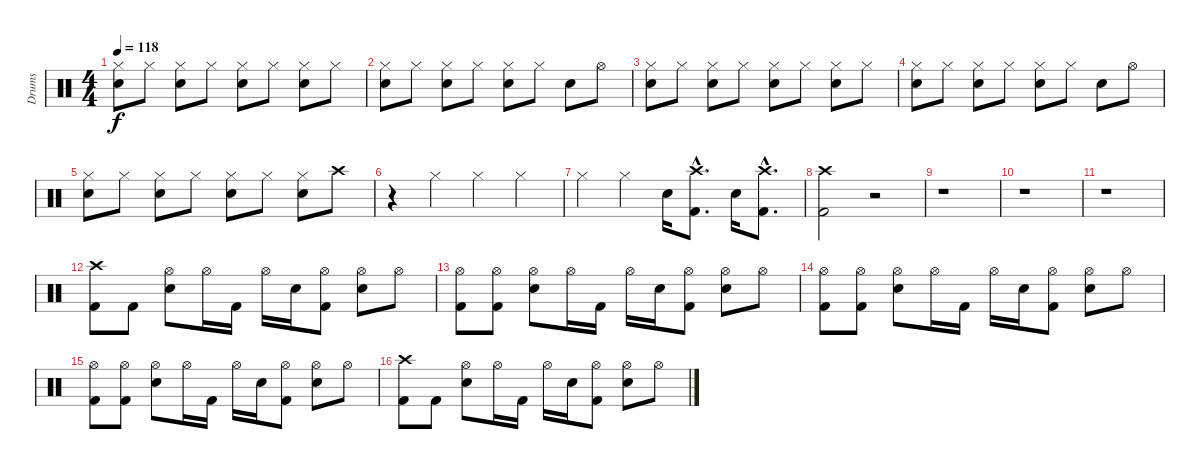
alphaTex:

\track ("Drums" "Drums") {instrument percussion}
\staff {score}
\articulation defaults
\ts (4 4)
\tempo 118
\clef neutral
\ks c
("Hi-Hat (closed)" "Electric Snare (hit)").8{dy f} "Hi-Hat (closed)".8 ("Hi-Hat (closed)" "Electric Snare (hit)").8 "Hi-Hat (closed)".8 ("Hi-Hat (closed)" "Electric Snare (hit)").8 "Hi-Hat (closed)".8 ("Hi-Hat (closed)" "Electric Snare (hit)").8 "Hi-Hat (closed)".8 |
("Hi-Hat (closed)" "Electric Snare (hit)").8 "Hi-Hat (closed)".8 ("Hi-Hat (closed)" "Electric Snare (hit)").8 "Hi-Hat (closed)".8 ("Hi-Hat (closed)" "Electric Snare (hit)").8 "Hi-Hat (closed)".8 "Electric Snare (hit)".8 "Hi-Hat (open)".8 |
("Hi-Hat (closed)" "Electric Snare (hit)").8 "Hi-Hat (closed)".8 ("Hi-Hat (closed)" "Electric Snare (hit)").8 "Hi-Hat (closed)".8 ("Hi-Hat (closed)" "Electric Snare (hit)").8 "Hi-Hat (closed)".8 ("Hi-Hat (closed)" "Electric Snare (hit)").8 "Hi-Hat (closed)".8 |
("Hi-Hat (closed)" "Electric Snare (hit)").8 "Hi-Hat (closed)".8 ("Hi-Hat (closed)" "Electric Snare (hit)").8 "Hi-Hat (closed)".8 ("Hi-Hat (closed)" "Electric Snare (hit)").8 "Hi-Hat (closed)".8 "Electric Snare (hit)".8 "Hi-Hat (open)".8 |
("Hi-Hat (closed)" "Electric Snare (hit)").8 "Hi-Hat (closed)".8 ("Hi-Hat (closed)" "Electric Snare (hit)").8 "Hi-Hat (closed)".8 ("Hi-Hat (closed)" "Electric Snare (hit)").8 "Hi-Hat (closed)".8 ("Hi-Hat (closed)" "Electric Snare (hit)").8 "Crash high (hit)".8 |
r.4 "Hi-Hat (closed)".4 "Hi-Hat (closed)".4 "Hi-Hat (closed)".4 |
"Hi-Hat (closed)".4 "Hi-Hat (closed)".4 "Electric Snare (hit)".16 ("Crash high (hit)"{hac} "Kick (hit) 2"{hac}).8{d} "Electric Snare (hit)".16 ("Crash high (hit)"{hac} "Kick (hit) 2"{hac}).8{d} |
("Crash high (hit)" "Kick (hit) 2").2 r.2 |
r.1 |
r.1 |
r.1 |
("Crash high (hit)" "Kick (hit) 2").8 "Kick (hit) 2".8 ("Hi-Hat (open)" "Electric Snare (hit)").8 "Hi-Hat (open)".16 "Kick (hit) 2".16 "Hi-Hat (open)".16 "Electric Snare (hit)".16 ("Hi-Hat (open)" "Kick (hit) 2").8 ("Hi-Hat (open)" "Electric Snare (hit)").8 "Hi-Hat (open)".8 |
("Hi-Hat (open)" "Kick (hit) 2").8 ("Hi-Hat (open)" "Kick (hit) 2").8 ("Hi-Hat (open)" "Electric Snare (hit)").8 "Hi-Hat (open)".16 "Kick (hit) 2".16 "Hi-Hat (open)".16 "Electric Snare (hit)".16 ("Hi-Hat (open)" "Kick (hit) 2").8 ("Hi-Hat (open)" "Electric Snare (hit)").8 "Hi-Hat (open)".8 |
("Hi-Hat (open)" "Kick (hit) 2").8 ("Hi-Hat (open)" "Kick (hit) 2").8 ("Hi-Hat (open)" "Electric Snare (hit)").8 "Hi-Hat (open)".16 "Kick (hit) 2".16 "Hi-Hat (open)".16 "Electric Snare (hit)".16 ("Hi-Hat (open)" "Kick (hit) 2").8 ("Hi-Hat (open)" "Electric Snare (hit)").8 "Hi-Hat (open)".8 |
("Hi-Hat (open)" "Kick (hit) 2").8 ("Hi-Hat (open)" "Kick (hit) 2").8 ("Hi-Hat (open)" "Electric Snare (hit)").8 "Hi-Hat (open)".16 "Kick (hit) 2".16 "Hi-Hat (open)".16 "Electric Snare (hit)".16 ("Hi-Hat (open)" "Kick (hit) 2").8 ("Hi-Hat (open)" "Electric Snare (hit)").8 "Hi-Hat (open)".8 |
("Crash high (hit)" "Kick (hit) 2").8 "Kick (hit) 2".8 ("Hi-Hat (open)" "Electric Snare (hit)").8 "Hi-Hat (open)".16 "Kick (hit) 2".16 "Hi-Hat (open)".16 "Electric Snare (hit)".16 ("Hi-Hat (open)" "Kick (hit) 2").8 ("Hi-Hat (open)" "Electric Snare (hit)").8 "Hi-Hat (open)".8
